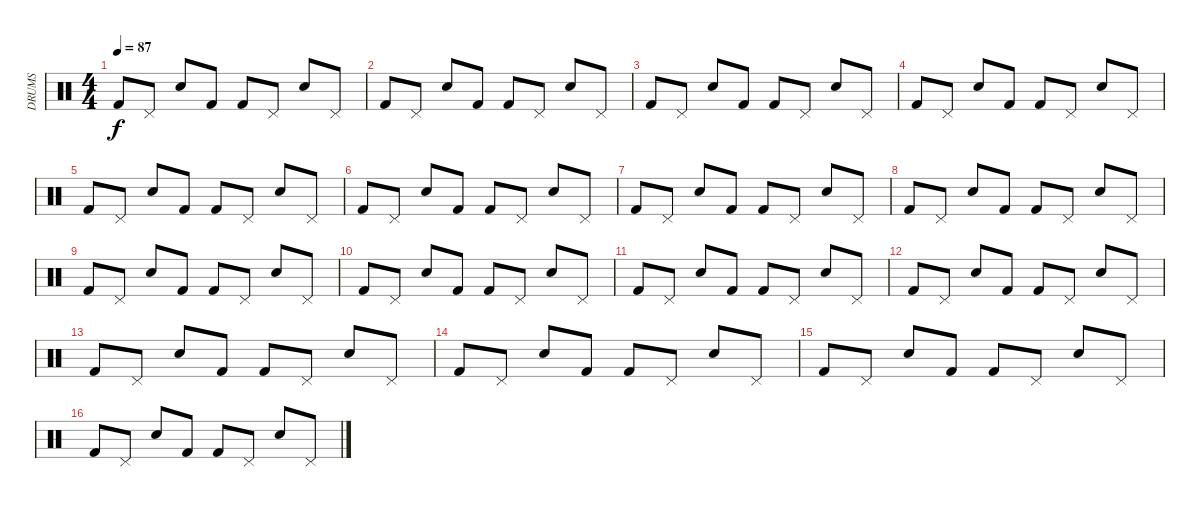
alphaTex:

\track ("DRUMS" "DRUMS") {instrument percussion}
\staff {score}
\articulation defaults
\ts (4 4)
\tempo 87
\clef neutral
\ks c "Kick (hit) 2".8{dy f} "Pedal Hi-Hat (hit)".8 "Electric Snare (hit)".8 "Kick (hit) 2".8 "Kick (hit) 2".8 "Pedal Hi-Hat (hit)".8 "Electric Snare (hit)".8 "Pedal Hi-Hat (hit)".8
|
"Kick (hit) 2".8 "Pedal Hi-Hat (hit)".8 "Electric Snare (hit)".8 "Kick (hit) 2".8 "Kick (hit) 2".8 "Pedal Hi-Hat (hit)".8 "Electric Snare (hit)".8 "Pedal Hi-Hat (hit)".8 |
"Kick (hit) 2".8 "Pedal Hi-Hat (hit)".8 "Electric Snare (hit)".8 "Kick (hit) 2".8 "Kick (hit) 2".8 "Pedal Hi-Hat (hit)".8 "Electric Snare (hit)".8 "Pedal Hi-Hat (hit)".8 |
"Kick (hit) 2".8 "Pedal Hi-Hat (hit)".8 "Electric Snare (hit)".8 "Kick (hit) 2".8 "Kick (hit) 2".8 "Pedal Hi-Hat (hit)".8 "Electric Snare (hit)".8 "Pedal Hi-Hat (hit)".8 |
"Kick (hit) 2".8 "Pedal Hi-Hat (hit)".8 "Electric Snare (hit)".8 "Kick (hit) 2".8 "Kick (hit) 2".8 "Pedal Hi-Hat (hit)".8 "Electric Snare (hit)".8 "Pedal Hi-Hat (hit)".8 |
"Kick (hit) 2".8 "Pedal Hi-Hat (hit)".8 "Electric Snare (hit)".8 "Kick (hit) 2".8 "Kick (hit) 2".8 "Pedal Hi-Hat (hit)".8 "Electric Snare (hit)".8 "Pedal Hi-Hat (hit)".8 |
"Kick (hit) 2".8 "Pedal Hi-Hat (hit)".8 "Electric Snare (hit)".8 "Kick (hit) 2".8 "Kick (hit) 2".8 "Pedal Hi-Hat (hit)".8 "Electric Snare (hit)".8 "Pedal Hi-Hat (hit)".8 |
"Kick (hit) 2".8 "Pedal Hi-Hat (hit)".8 "Electric Snare (hit)".8 "Kick (hit) 2".8 "Kick (hit) 2".8 "Pedal Hi-Hat (hit)".8 "Electric Snare (hit)".8 "Pedal Hi-Hat (hit)".8 |
"Kick (hit) 2".8 "Pedal Hi-Hat (hit)".8 "Electric Snare (hit)".8 "Kick (hit) 2".8 "Kick (hit) 2".8 "Pedal Hi-Hat (hit)".8 "Electric Snare (hit)".8 "Pedal Hi-Hat (hit)".8 |
"Kick (hit) 2".8 "Pedal Hi-Hat (hit)".8 "Electric Snare (hit)".8 "Kick (hit) 2".8 "Kick (hit) 2".8 "Pedal Hi-Hat (hit)".8 "Electric Snare (hit)".8 "Pedal Hi-Hat (hit)".8 |
"Kick (hit) 2".8 "Pedal Hi-Hat (hit)".8 "Electric Snare (hit)".8 "Kick (hit) 2".8 "Kick (hit) 2".8 "Pedal Hi-Hat (hit)".8 "Electric Snare (hit)".8 "Pedal Hi-Hat (hit)".8 |
"Kick (hit) 2".8 "Pedal Hi-Hat (hit)".8 "Electric Snare (hit)".8 "Kick (hit) 2".8 "Kick (hit) 2".8 "Pedal Hi-Hat (hit)".8 "Electric Snare (hit)".8 "Pedal Hi-Hat (hit)".8 |
"Kick (hit) 2".8 "Pedal Hi-Hat (hit)".8 "Electric Snare (hit)".8 "Kick (hit) 2".8 "Kick (hit) 2".8 "Pedal Hi-Hat (hit)".8 "Electric Snare (hit)".8 "Pedal Hi-Hat (hit)".8 |
"Kick (hit) 2".8 "Pedal Hi-Hat (hit)".8 "Electric Snare (hit)".8 "Kick (hit) 2".8 "Kick (hit) 2".8 "Pedal Hi-Hat (hit)".8 "Electric Snare (hit)".8 "Pedal Hi-Hat (hit)".8 |
"Kick (hit) 2".8 "Pedal Hi-Hat (hit)".8 "Electric Snare (hit)".8 "Kick (hit) 2".8 "Kick (hit) 2".8 "Pedal Hi-Hat (hit)".8 "Electric Snare (hit)".8 "Pedal Hi-Hat (hit)".8 |
"Kick (hit) 2".8 "Pedal Hi-Hat (hit)".8 "Electric Snare (hit)".8 "Kick (hit) 2".8 "Kick (hit) 2".8 "Pedal Hi-Hat (hit)".8 "Electric Snare (hit)".8 "Pedal Hi-Hat (hit)".8
